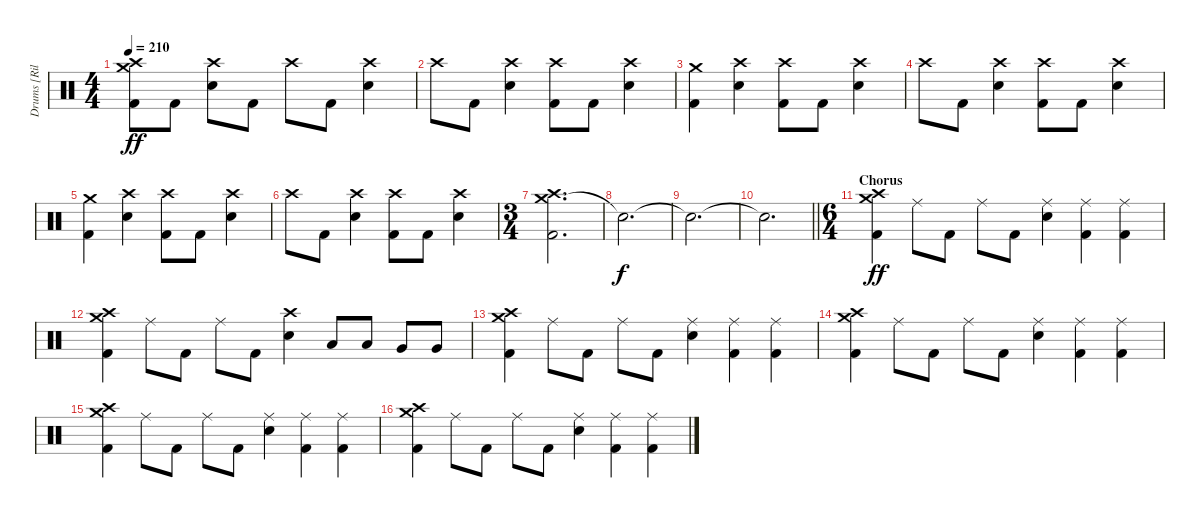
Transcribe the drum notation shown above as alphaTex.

\track ("Drums [Riley]" "Drums [Ril") {instrument percussion}
\staff {score}
\articulation defaults
\ts (4 4)
\tempo 210
\clef neutral
\ks c
("Crash medium (hit)" "Crash high (hit)" "Kick (hit) 2").8{dy ff} "Kick (hit) 2".8 ("Crash high (hit)" "Electric Snare (hit)").8 "Kick (hit) 2".8 "Crash high (hit)".8 "Kick (hit) 2".8 ("Crash high (hit)" "Electric Snare (hit)").4 |
"Crash high (hit)".8 "Kick (hit) 2".8 ("Crash high (hit)" "Electric Snare (hit)").4 ("Crash high (hit)" "Kick (hit) 2").8 "Kick (hit) 2".8 ("Crash high (hit)" "Electric Snare (hit)").4 |
("Crash medium (hit)" "Kick (hit) 2").4 ("Crash high (hit)" "Electric Snare (hit)").4 ("Crash high (hit)" "Kick (hit) 2").8 "Kick (hit) 2".8 ("Crash high (hit)" "Electric Snare (hit)").4 |
"Crash high (hit)".8 "Kick (hit) 2".8 ("Crash high (hit)" "Electric Snare (hit)").4 ("Crash high (hit)" "Kick (hit) 2").8 "Kick (hit) 2".8 ("Crash high (hit)" "Electric Snare (hit)").4 |
("Crash medium (hit)" "Kick (hit) 2").4 ("Crash high (hit)" "Electric Snare (hit)").4 ("Crash high (hit)" "Kick (hit) 2").8 "Kick (hit) 2".8 ("Crash high (hit)" "Electric Snare (hit)").4 |
"Crash high (hit)".8 "Kick (hit) 2".8 ("Crash high (hit)" "Electric Snare (hit)").4 ("Crash high (hit)" "Kick (hit) 2").8 "Kick (hit) 2".8 ("Crash high (hit)" "Electric Snare (hit)").4 |
\ts (3 4)
("Crash medium (hit)" "Crash high (hit)" "Kick (hit) 2").2{d} |
"Snare (hit)"{t}.2{d dy f} |
"Snare (hit)"{t}.2{d} |
\barLineRight lightlight "Snare (hit)"{t}.2{d}
|
\ts (6 4)
\section ("" "Chorus")
("Crash medium (hit)" "Crash high (hit)" "Kick (hit) 2").4{dy ff} "Ride (middle)".8 "Kick (hit) 2".8 "Ride (middle)".8 "Kick (hit) 2".8 ("Ride (middle)" "Electric Snare (hit)").4 ("Ride (middle)" "Kick (hit) 2").4 ("Ride (middle)" "Kick (hit) 2").4 |
("Crash medium (hit)" "Crash high (hit)" "Kick (hit) 2").4 "Ride (middle)".8 "Kick (hit) 2".8 "Ride (middle)".8 "Kick (hit) 2".8 ("Crash high (hit)" "Electric Snare (hit)").4 "Low Tom (hit)".8 "Low Tom (hit)".8 "Very Low Tom (hit)".8 "Very Low Tom (hit)".8 |
("Crash medium (hit)" "Crash high (hit)" "Kick (hit) 2").4 "Ride (middle)".8 "Kick (hit) 2".8 "Ride (middle)".8 "Kick (hit) 2".8 ("Ride (middle)" "Electric Snare (hit)").4 ("Ride (middle)" "Kick (hit) 2").4 ("Ride (middle)" "Kick (hit) 2").4 |
("Crash medium (hit)" "Crash high (hit)" "Kick (hit) 2").4 "Ride (middle)".8 "Kick (hit) 2".8 "Ride (middle)".8 "Kick (hit) 2".8 ("Ride (middle)" "Electric Snare (hit)").4 ("Ride (middle)" "Kick (hit) 2").4 ("Ride (middle)" "Kick (hit) 2").4 |
("Crash medium (hit)" "Crash high (hit)" "Kick (hit) 2").4 "Ride (middle)".8 "Kick (hit) 2".8 "Ride (middle)".8 "Kick (hit) 2".8 ("Ride (middle)" "Electric Snare (hit)").4 ("Ride (middle)" "Kick (hit) 2").4 ("Ride (middle)" "Kick (hit) 2").4 |
("Crash medium (hit)" "Crash high (hit)" "Kick (hit) 2").4 "Ride (middle)".8 "Kick (hit) 2".8 "Ride (middle)".8 "Kick (hit) 2".8 ("Ride (middle)" "Electric Snare (hit)").4 ("Ride (middle)" "Kick (hit) 2").4 ("Ride (middle)" "Kick (hit) 2").4
